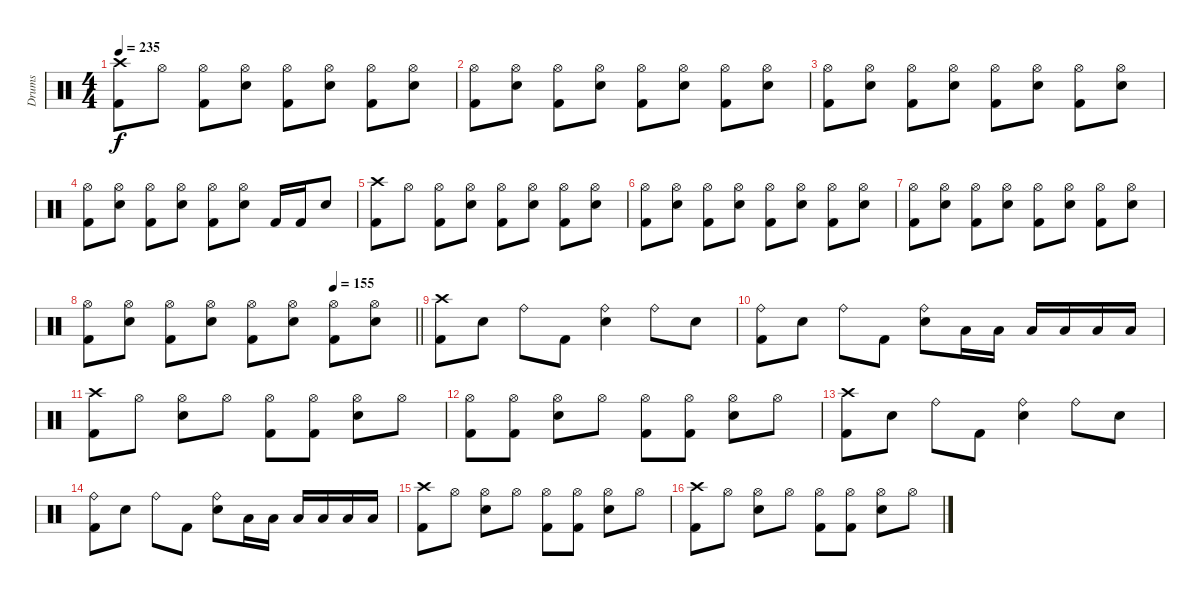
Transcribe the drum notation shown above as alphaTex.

\track ("Drums" "Drums") {instrument percussion}
\staff {score}
\articulation defaults
\ts (4 4)
\tempo 235
\clef neutral
\ks c
("Crash high (hit)" "Kick (hit) 2").8{dy f} "Hi-Hat (open)".8 ("Hi-Hat (open)" "Kick (hit) 2").8 ("Hi-Hat (open)" "Snare (hit) 2").8 ("Hi-Hat (open)" "Kick (hit) 2").8 ("Hi-Hat (open)" "Snare (hit) 2").8 ("Hi-Hat (open)" "Kick (hit) 2").8 ("Hi-Hat (open)" "Snare (hit) 2").8 |
("Hi-Hat (open)" "Kick (hit) 2").8 ("Hi-Hat (open)" "Snare (hit) 2").8 ("Hi-Hat (open)" "Kick (hit) 2").8 ("Hi-Hat (open)" "Snare (hit) 2").8 ("Hi-Hat (open)" "Kick (hit) 2").8 ("Hi-Hat (open)" "Snare (hit) 2").8 ("Hi-Hat (open)" "Kick (hit) 2").8 ("Hi-Hat (open)" "Snare (hit) 2").8 |
("Hi-Hat (open)" "Kick (hit) 2").8 ("Hi-Hat (open)" "Snare (hit) 2").8 ("Hi-Hat (open)" "Kick (hit) 2").8 ("Hi-Hat (open)" "Snare (hit) 2").8 ("Hi-Hat (open)" "Kick (hit) 2").8 ("Hi-Hat (open)" "Snare (hit) 2").8 ("Hi-Hat (open)" "Kick (hit) 2").8 ("Hi-Hat (open)" "Snare (hit) 2").8 |
("Hi-Hat (open)" "Kick (hit) 2").8 ("Hi-Hat (open)" "Snare (hit) 2").8 ("Hi-Hat (open)" "Kick (hit) 2").8 ("Hi-Hat (open)" "Snare (hit) 2").8 ("Hi-Hat (open)" "Kick (hit) 2").8 ("Hi-Hat (open)" "Snare (hit) 2").8 "Kick (hit) 2".16 "Kick (hit) 2".16 "Snare (hit) 2".8 |
("Crash high (hit)" "Kick (hit) 2").8 "Hi-Hat (open)".8 ("Hi-Hat (open)" "Kick (hit) 2").8 ("Hi-Hat (open)" "Snare (hit) 2").8 ("Hi-Hat (open)" "Kick (hit) 2").8 ("Hi-Hat (open)" "Snare (hit) 2").8 ("Hi-Hat (open)" "Kick (hit) 2").8 ("Hi-Hat (open)" "Snare (hit) 2").8 |
("Hi-Hat (open)" "Kick (hit) 2").8 ("Hi-Hat (open)" "Snare (hit) 2").8 ("Hi-Hat (open)" "Kick (hit) 2").8 ("Hi-Hat (open)" "Snare (hit) 2").8 ("Hi-Hat (open)" "Kick (hit) 2").8 ("Hi-Hat (open)" "Snare (hit) 2").8 ("Hi-Hat (open)" "Kick (hit) 2").8 ("Hi-Hat (open)" "Snare (hit) 2").8 |
("Hi-Hat (open)" "Kick (hit) 2").8 ("Hi-Hat (open)" "Snare (hit) 2").8 ("Hi-Hat (open)" "Kick (hit) 2").8 ("Hi-Hat (open)" "Snare (hit) 2").8 ("Hi-Hat (open)" "Kick (hit) 2").8 ("Hi-Hat (open)" "Snare (hit) 2").8 ("Hi-Hat (open)" "Kick (hit) 2").8 ("Hi-Hat (open)" "Snare (hit) 2").8 |
\tempo (155 0.75)
\barLineRight lightlight
("Hi-Hat (open)" "Kick (hit) 2").8 ("Hi-Hat (open)" "Snare (hit) 2").8 ("Hi-Hat (open)" "Kick (hit) 2").8 ("Hi-Hat (open)" "Snare (hit) 2").8 ("Hi-Hat (open)" "Kick (hit) 2").8 ("Hi-Hat (open)" "Snare (hit) 2").8 ("Hi-Hat (open)" "Kick (hit) 2").8 ("Hi-Hat (open)" "Snare (hit) 2").8 |
("Crash high (hit)" "Kick (hit) 2").8 "Snare (hit) 2".8 "Ride (bell)".8 "Kick (hit) 2".8 ("Ride (bell)" "Snare (hit) 2").4 "Ride (bell)".8 "Snare (hit) 2".8 |
("Ride (bell)" "Kick (hit) 2").8 "Snare (hit) 2".8 "Ride (bell)".8 "Kick (hit) 2".8 ("Ride (bell)" "Snare (hit) 2").8 "Low Tom (hit)".16 "Low Tom (hit)".16 "Low Tom (hit)".16 "Low Tom (hit)".16 "Low Tom (hit)".16 "Low Tom (hit)".16 |
("Crash high (hit)" "Kick (hit) 2").8 "Hi-Hat (open)".8 ("Hi-Hat (open)" "Snare (hit) 2").8 "Hi-Hat (open)".8 ("Hi-Hat (open)" "Kick (hit) 2").8 ("Hi-Hat (open)" "Kick (hit) 2").8 ("Hi-Hat (open)" "Snare (hit) 2").8 "Hi-Hat (open)".8 |
("Hi-Hat (open)" "Kick (hit) 2").8 ("Hi-Hat (open)" "Kick (hit) 2").8 ("Hi-Hat (open)" "Snare (hit) 2").8 "Hi-Hat (open)".8 ("Hi-Hat (open)" "Kick (hit) 2").8 ("Hi-Hat (open)" "Kick (hit) 2").8 ("Hi-Hat (open)" "Snare (hit) 2").8 "Hi-Hat (open)".8 |
("Crash high (hit)" "Kick (hit) 2").8 "Snare (hit) 2".8 "Ride (bell)".8 "Kick (hit) 2".8 ("Ride (bell)" "Snare (hit) 2").4 "Ride (bell)".8 "Snare (hit) 2".8 |
("Ride (bell)" "Kick (hit) 2").8 "Snare (hit) 2".8 "Ride (bell)".8 "Kick (hit) 2".8 ("Ride (bell)" "Snare (hit) 2").8 "Low Tom (hit)".16 "Low Tom (hit)".16 "Low Tom (hit)".16 "Low Tom (hit)".16 "Low Tom (hit)".16 "Low Tom (hit)".16 |
("Crash high (hit)" "Kick (hit) 2").8 "Hi-Hat (open)".8 ("Hi-Hat (open)" "Snare (hit) 2").8 "Hi-Hat (open)".8 ("Hi-Hat (open)" "Kick (hit) 2").8 ("Hi-Hat (open)" "Kick (hit) 2").8 ("Hi-Hat (open)" "Snare (hit) 2").8 "Hi-Hat (open)".8 |
("Crash high (hit)" "Kick (hit) 2").8 "Hi-Hat (open)".8 ("Hi-Hat (open)" "Snare (hit) 2").8 "Hi-Hat (open)".8 ("Hi-Hat (open)" "Kick (hit) 2").8 ("Hi-Hat (open)" "Kick (hit) 2").8 ("Hi-Hat (open)" "Snare (hit) 2").8 "Hi-Hat (open)".8
